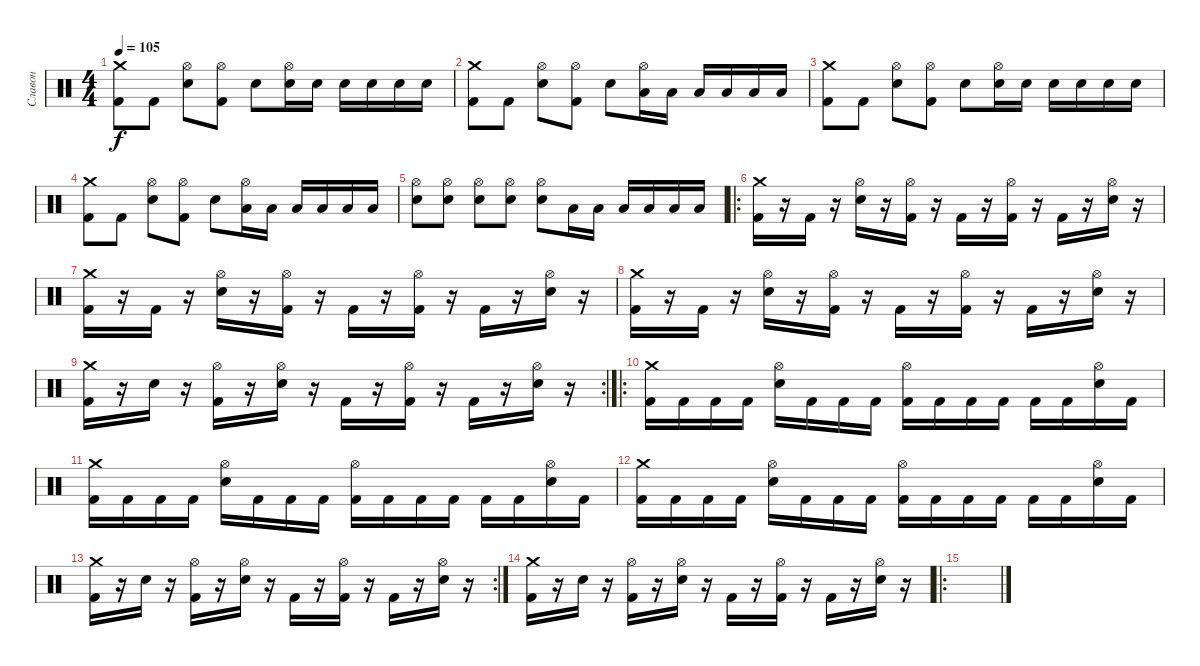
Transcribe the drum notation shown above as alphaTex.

\track ("Славон" "Славон") {instrument percussion}
\staff {score}
\articulation defaults
\ts (4 4)
\tempo 105
\clef neutral
\ks c
("Crash medium (hit)" "Kick (hit) 2").8{dy f} "Kick (hit) 2".8 ("Hi-Hat (open)" "Snare (hit) 2").8 ("Hi-Hat (open)" "Kick (hit) 2").8 "Snare (hit) 2".8 ("Hi-Hat (open)" "Snare (hit) 2").16 "Snare (hit) 2".16 "Snare (hit) 2".16 "Snare (hit) 2".16 "Snare (hit) 2".16 "Snare (hit) 2".16 |
("Crash medium (hit)" "Kick (hit) 2").8 "Kick (hit) 2".8 ("Hi-Hat (open)" "Snare (hit) 2").8 ("Hi-Hat (open)" "Kick (hit) 2").8 "Snare (hit) 2".8 ("Hi-Hat (open)" "Low Tom (hit)").16 "Low Tom (hit)".16 "Low Tom (hit)".16 "Low Tom (hit)".16 "Low Tom (hit)".16 "Low Tom (hit)".16 |
("Crash medium (hit)" "Kick (hit) 2").8 "Kick (hit) 2".8 ("Hi-Hat (open)" "Snare (hit) 2").8 ("Hi-Hat (open)" "Kick (hit) 2").8 "Snare (hit) 2".8 ("Hi-Hat (open)" "Snare (hit) 2").16 "Snare (hit) 2".16 "Snare (hit) 2".16 "Snare (hit) 2".16 "Snare (hit) 2".16 "Snare (hit) 2".16 |
("Crash medium (hit)" "Kick (hit) 2").8 "Kick (hit) 2".8 ("Hi-Hat (open)" "Snare (hit) 2").8 ("Hi-Hat (open)" "Kick (hit) 2").8 "Snare (hit) 2".8 ("Hi-Hat (open)" "Low Tom (hit)").16 "Low Tom (hit)".16 "Low Tom (hit)".16 "Low Tom (hit)".16 "Low Tom (hit)".16 "Low Tom (hit)".16 |
("Hi-Hat (open)" "Snare (hit) 2").8 ("Hi-Hat (open)" "Snare (hit) 2").8 ("Hi-Hat (open)" "Snare (hit) 2").8 ("Hi-Hat (open)" "Snare (hit) 2").8 ("Hi-Hat (open)" "Snare (hit) 2").8 "Low Tom (hit)".16 "Low Tom (hit)".16 "Low Tom (hit)".16 "Low Tom (hit)".16 "Low Tom (hit)".16 "Low Tom (hit)".16 |
\ro
("Crash medium (hit)" "Kick (hit) 2").16 r.16 "Kick (hit) 2".16 r.16 ("Hi-Hat (open)" "Snare (hit) 2").16 r.16 ("Hi-Hat (open)" "Kick (hit) 2").16 r.16 "Kick (hit) 2".16 r.16 ("Hi-Hat (open)" "Kick (hit) 2").16 r.16 "Kick (hit) 2".16 r.16 ("Hi-Hat (open)" "Snare (hit) 2").16 r.16 |
("Crash medium (hit)" "Kick (hit) 2").16 r.16 "Kick (hit) 2".16 r.16 ("Hi-Hat (open)" "Snare (hit) 2").16 r.16 ("Hi-Hat (open)" "Kick (hit) 2").16 r.16 "Kick (hit) 2".16 r.16 ("Hi-Hat (open)" "Kick (hit) 2").16 r.16 "Kick (hit) 2".16 r.16 ("Hi-Hat (open)" "Snare (hit) 2").16 r.16 |
("Crash medium (hit)" "Kick (hit) 2").16 r.16 "Kick (hit) 2".16 r.16 ("Hi-Hat (open)" "Snare (hit) 2").16 r.16 ("Hi-Hat (open)" "Kick (hit) 2").16 r.16 "Kick (hit) 2".16 r.16 ("Hi-Hat (open)" "Kick (hit) 2").16 r.16 "Kick (hit) 2".16 r.16 ("Hi-Hat (open)" "Snare (hit) 2").16 r.16 |
\rc 2
("Crash medium (hit)" "Kick (hit) 2").16 r.16 "Snare (hit) 2".16 r.16 ("Hi-Hat (open)" "Kick (hit) 2").16 r.16 ("Hi-Hat (open)" "Snare (hit) 2").16 r.16 "Kick (hit) 2".16 r.16 ("Hi-Hat (open)" "Kick (hit) 2").16 r.16 "Kick (hit) 2".16 r.16 ("Hi-Hat (open)" "Snare (hit) 2").16 r.16 |
\ro
("Crash medium (hit)" "Kick (hit) 2").16 "Kick (hit) 2".16 "Kick (hit) 2".16 "Kick (hit) 2".16 ("Hi-Hat (open)" "Snare (hit) 2").16 "Kick (hit) 2".16 "Kick (hit) 2".16 "Kick (hit) 2".16 ("Hi-Hat (open)" "Kick (hit) 2").16 "Kick (hit) 2".16 "Kick (hit) 2".16 "Kick (hit) 2".16 "Kick (hit) 2".16 "Kick (hit) 2".16 ("Hi-Hat (open)" "Snare (hit) 2").16 "Kick (hit) 2".16 |
("Crash medium (hit)" "Kick (hit) 2").16 "Kick (hit) 2".16 "Kick (hit) 2".16 "Kick (hit) 2".16 ("Hi-Hat (open)" "Snare (hit) 2").16 "Kick (hit) 2".16 "Kick (hit) 2".16 "Kick (hit) 2".16 ("Hi-Hat (open)" "Kick (hit) 2").16 "Kick (hit) 2".16 "Kick (hit) 2".16 "Kick (hit) 2".16 "Kick (hit) 2".16 "Kick (hit) 2".16 ("Hi-Hat (open)" "Snare (hit) 2").16 "Kick (hit) 2".16 |
("Crash medium (hit)" "Kick (hit) 2").16 "Kick (hit) 2".16 "Kick (hit) 2".16 "Kick (hit) 2".16 ("Hi-Hat (open)" "Snare (hit) 2").16 "Kick (hit) 2".16 "Kick (hit) 2".16 "Kick (hit) 2".16 ("Hi-Hat (open)" "Kick (hit) 2").16 "Kick (hit) 2".16 "Kick (hit) 2".16 "Kick (hit) 2".16 "Kick (hit) 2".16 "Kick (hit) 2".16 ("Hi-Hat (open)" "Snare (hit) 2").16 "Kick (hit) 2".16 |
\rc 2
("Crash medium (hit)" "Kick (hit) 2").16 r.16 "Snare (hit) 2".16 r.16 ("Hi-Hat (open)" "Kick (hit) 2").16 r.16 ("Hi-Hat (open)" "Snare (hit) 2").16 r.16 "Kick (hit) 2".16 r.16 ("Hi-Hat (open)" "Kick (hit) 2").16 r.16 "Kick (hit) 2".16 r.16 ("Hi-Hat (open)" "Snare (hit) 2").16 r.16 |
("Crash medium (hit)" "Kick (hit) 2").16 r.16 "Snare (hit) 2".16 r.16 ("Hi-Hat (open)" "Kick (hit) 2").16 r.16 ("Hi-Hat (open)" "Snare (hit) 2").16 r.16 "Kick (hit) 2".16 r.16 ("Hi-Hat (open)" "Kick (hit) 2").16 r.16 "Kick (hit) 2".16 r.16 ("Hi-Hat (open)" "Snare (hit) 2").16 r.16 |
\ro
